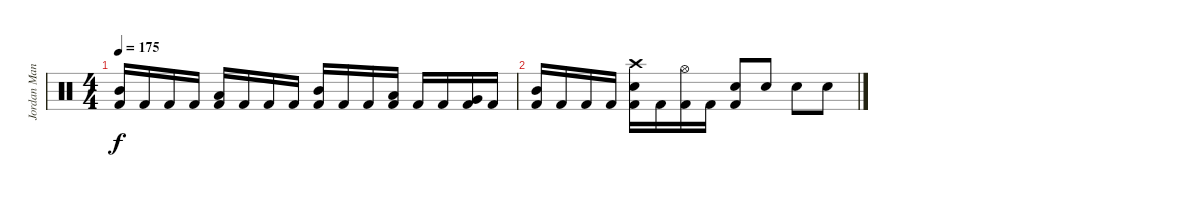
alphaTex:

\track ("Jordan Mancini" "Jordan Man") {instrument percussion}
\staff {score}
\articulation defaults
\ts (4 4)
\tempo 175
\clef neutral
\ks c
("Mid Tom (hit)" "Kick (hit) 2").16{dy f} "Kick (hit) 2".16 "Kick (hit) 2".16 "Kick (hit) 2".16 ("Low Tom (hit)" "Kick (hit) 2").16 "Kick (hit) 2".16 "Kick (hit) 2".16 "Kick (hit) 2".16 ("Mid Tom (hit)" "Kick (hit) 2").16 "Kick (hit) 2".16 "Kick (hit) 2".16 ("Low Tom (hit)" "Kick (hit) 2").16 "Kick (hit) 2".16 "Kick (hit) 2".16 ("Very Low Tom (hit)" "Kick (hit) 2").16 "Kick (hit) 2".16 |
("Mid Tom (hit)" "Kick (hit) 2").16 "Kick (hit) 2".16 "Kick (hit) 2".16 "Kick (hit) 2".16 ("Crash high (hit)" "Snare (hit) 2" "Kick (hit) 2").16 "Kick (hit) 2".16 ("Hi-Hat (open)" "Kick (hit) 2").16 "Kick (hit) 2".16 ("Snare (hit) 2" "Kick (hit) 2").8 "Snare (hit) 2".8 "Snare (hit) 2".8 "Snare (hit) 2".8
